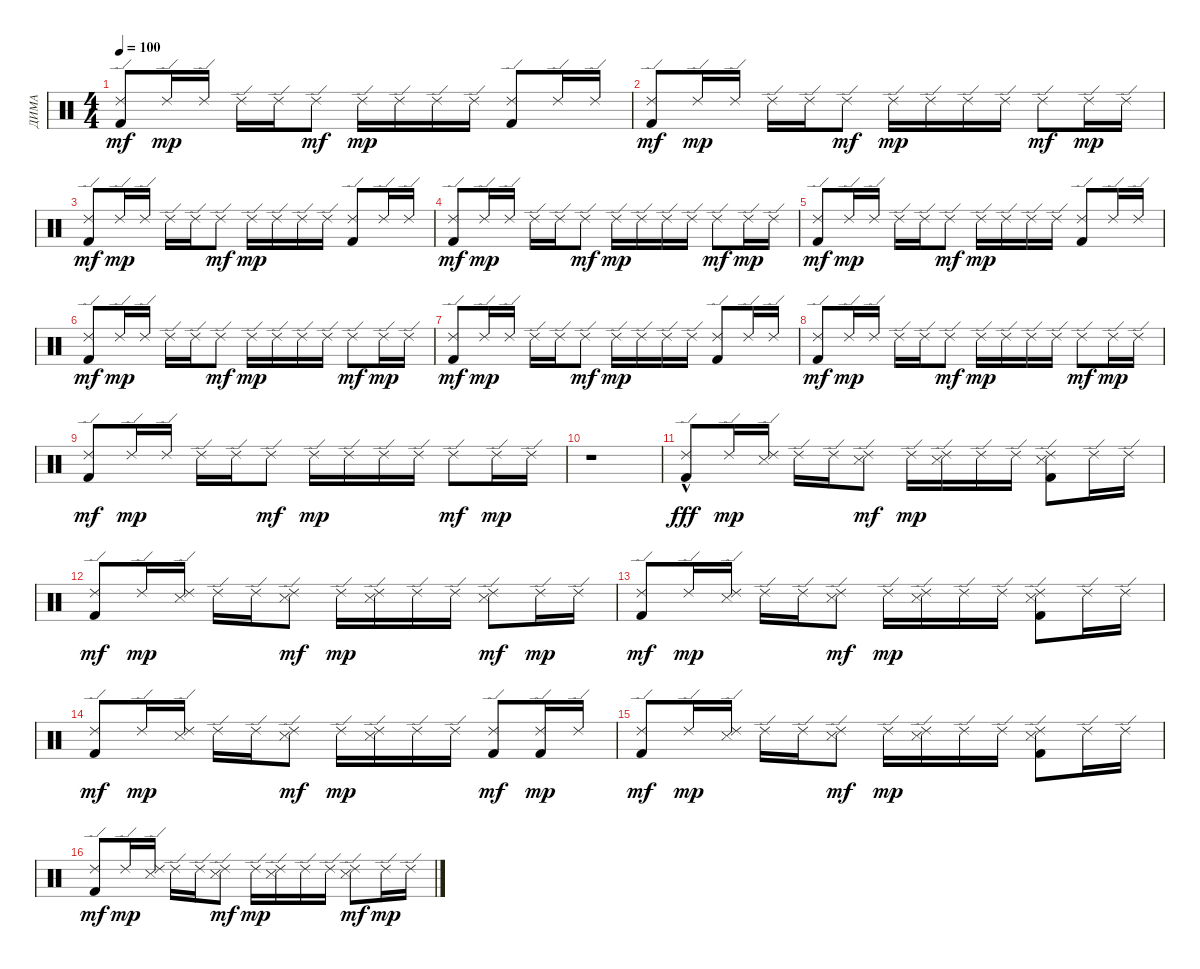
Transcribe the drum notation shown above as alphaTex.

\track ("ДИМА" "ДИМА") {instrument percussion}
\staff {score}
\articulation defaults
\ts (4 4)
\tempo 100
\clef neutral
\ks c
("Ride (edge) 2" "Kick (hit) 2").8{dy mf} "Ride (edge) 2".16{dy mp} "Ride (edge) 2".16 "Ride (edge) 2".16 "Ride (edge) 2".16 "Ride (edge) 2".8{dy mf} "Ride (edge) 2".16{dy mp} "Ride (edge) 2".16 "Ride (edge) 2".16 "Ride (edge) 2".16 ("Ride (edge) 2" "Kick (hit) 2").8 "Ride (edge) 2".16 "Ride (edge) 2".16 |
("Ride (edge) 2" "Kick (hit) 2").8{dy mf} "Ride (edge) 2".16{dy mp} "Ride (edge) 2".16 "Ride (edge) 2".16 "Ride (edge) 2".16 "Ride (edge) 2".8{dy mf} "Ride (edge) 2".16{dy mp} "Ride (edge) 2".16 "Ride (edge) 2".16 "Ride (edge) 2".16 "Ride (edge) 2".8{dy mf} "Ride (edge) 2".16{dy mp} "Ride (edge) 2".16 |
("Ride (edge) 2" "Kick (hit) 2").8{dy mf} "Ride (edge) 2".16{dy mp} "Ride (edge) 2".16 "Ride (edge) 2".16 "Ride (edge) 2".16 "Ride (edge) 2".8{dy mf} "Ride (edge) 2".16{dy mp} "Ride (edge) 2".16 "Ride (edge) 2".16 "Ride (edge) 2".16 ("Ride (edge) 2" "Kick (hit) 2").8 "Ride (edge) 2".16 "Ride (edge) 2".16 |
("Ride (edge) 2" "Kick (hit) 2").8{dy mf} "Ride (edge) 2".16{dy mp} "Ride (edge) 2".16 "Ride (edge) 2".16 "Ride (edge) 2".16 "Ride (edge) 2".8{dy mf} "Ride (edge) 2".16{dy mp} "Ride (edge) 2".16 "Ride (edge) 2".16 "Ride (edge) 2".16 "Ride (edge) 2".8{dy mf} "Ride (edge) 2".16{dy mp} "Ride (edge) 2".16 |
("Ride (edge) 2" "Kick (hit) 2").8{dy mf} "Ride (edge) 2".16{dy mp} "Ride (edge) 2".16 "Ride (edge) 2".16 "Ride (edge) 2".16 "Ride (edge) 2".8{dy mf} "Ride (edge) 2".16{dy mp} "Ride (edge) 2".16 "Ride (edge) 2".16 "Ride (edge) 2".16 ("Ride (edge) 2" "Kick (hit) 2").8 "Ride (edge) 2".16 "Ride (edge) 2".16 |
("Ride (edge) 2" "Kick (hit) 2").8{dy mf} "Ride (edge) 2".16{dy mp} "Ride (edge) 2".16 "Ride (edge) 2".16 "Ride (edge) 2".16 "Ride (edge) 2".8{dy mf} "Ride (edge) 2".16{dy mp} "Ride (edge) 2".16 "Ride (edge) 2".16 "Ride (edge) 2".16 "Ride (edge) 2".8{dy mf} "Ride (edge) 2".16{dy mp} "Ride (edge) 2".16 |
("Ride (edge) 2" "Kick (hit) 2").8{dy mf} "Ride (edge) 2".16{dy mp} "Ride (edge) 2".16 "Ride (edge) 2".16 "Ride (edge) 2".16 "Ride (edge) 2".8{dy mf} "Ride (edge) 2".16{dy mp} "Ride (edge) 2".16 "Ride (edge) 2".16 "Ride (edge) 2".16 ("Ride (edge) 2" "Kick (hit) 2").8 "Ride (edge) 2".16 "Ride (edge) 2".16 |
("Ride (edge) 2" "Kick (hit) 2").8{dy mf} "Ride (edge) 2".16{dy mp} "Ride (edge) 2".16 "Ride (edge) 2".16 "Ride (edge) 2".16 "Ride (edge) 2".8{dy mf} "Ride (edge) 2".16{dy mp} "Ride (edge) 2".16 "Ride (edge) 2".16 "Ride (edge) 2".16 "Ride (edge) 2".8{dy mf} "Ride (edge) 2".16{dy mp} "Ride (edge) 2".16 |
("Ride (edge) 2" "Kick (hit) 2").8{dy mf} "Ride (edge) 2".16{dy mp} "Ride (edge) 2".16 "Ride (edge) 2".16 "Ride (edge) 2".16 "Ride (edge) 2".8{dy mf} "Ride (edge) 2".16{dy mp} "Ride (edge) 2".16 "Ride (edge) 2".16 "Ride (edge) 2".16 "Ride (edge) 2".8{dy mf} "Ride (edge) 2".16{dy mp} "Ride (edge) 2".16 |
r.1 |
("Ride (edge) 2" "Kick (hit) 2"{hac}).8{dy fff} "Ride (edge) 2".16{dy mp} ("Ride (edge) 2" "Snare (side stick) 3").16 "Ride (edge) 2".16 "Ride (edge) 2".16 ("Ride (edge) 2" "Snare (side stick) 3").8{dy mf} "Ride (edge) 2".16{dy mp} ("Ride (edge) 2" "Snare (side stick) 3").16 "Ride (edge) 2".16 "Ride (edge) 2".16 ("Ride (edge) 2" "Snare (side stick) 3" "Kick (hit) 2").8 "Ride (edge) 2".16 "Ride (edge) 2".16 |
("Ride (edge) 2" "Kick (hit) 2").8{dy mf} "Ride (edge) 2".16{dy mp} ("Ride (edge) 2" "Snare (side stick) 3").16 "Ride (edge) 2".16 "Ride (edge) 2".16 ("Ride (edge) 2" "Snare (side stick) 3").8{dy mf} "Ride (edge) 2".16{dy mp} ("Ride (edge) 2" "Snare (side stick) 3").16 "Ride (edge) 2".16 "Ride (edge) 2".16 ("Ride (edge) 2" "Snare (side stick) 3").8{dy mf} "Ride (edge) 2".16{dy mp} "Ride (edge) 2".16 |
("Ride (edge) 2" "Kick (hit) 2").8{dy mf} "Ride (edge) 2".16{dy mp} ("Ride (edge) 2" "Snare (side stick) 3").16 "Ride (edge) 2".16 "Ride (edge) 2".16 ("Ride (edge) 2" "Snare (side stick) 3").8{dy mf} "Ride (edge) 2".16{dy mp} ("Ride (edge) 2" "Snare (side stick) 3").16 "Ride (edge) 2".16 "Ride (edge) 2".16 ("Ride (edge) 2" "Snare (side stick) 3" "Kick (hit) 2").8 "Ride (edge) 2".16 "Ride (edge) 2".16 |
("Ride (edge) 2" "Kick (hit) 2").8{dy mf} "Ride (edge) 2".16{dy mp} ("Ride (edge) 2" "Snare (side stick) 3").16 "Ride (edge) 2".16 "Ride (edge) 2".16 ("Ride (edge) 2" "Snare (side stick) 3").8{dy mf} "Ride (edge) 2".16{dy mp} ("Ride (edge) 2" "Snare (side stick) 3").16 "Ride (edge) 2".16 "Ride (edge) 2".16 ("Ride (edge) 2" "Kick (hit) 2").8{dy mf} ("Ride (edge) 2" "Kick (hit) 2").16{dy mp} "Ride (edge) 2".16 |
("Ride (edge) 2" "Kick (hit) 2").8{dy mf} "Ride (edge) 2".16{dy mp} ("Ride (edge) 2" "Snare (side stick) 3").16 "Ride (edge) 2".16 "Ride (edge) 2".16 ("Ride (edge) 2" "Snare (side stick) 3").8{dy mf} "Ride (edge) 2".16{dy mp} ("Ride (edge) 2" "Snare (side stick) 3").16 "Ride (edge) 2".16 "Ride (edge) 2".16 ("Ride (edge) 2" "Snare (side stick) 3" "Kick (hit) 2").8 "Ride (edge) 2".16 "Ride (edge) 2".16 |
("Ride (edge) 2" "Kick (hit) 2").8{dy mf} "Ride (edge) 2".16{dy mp} ("Ride (edge) 2" "Snare (side stick) 3").16 "Ride (edge) 2".16 "Ride (edge) 2".16 ("Ride (edge) 2" "Snare (side stick) 3").8{dy mf} "Ride (edge) 2".16{dy mp} ("Ride (edge) 2" "Snare (side stick) 3").16 "Ride (edge) 2".16 "Ride (edge) 2".16 ("Ride (edge) 2" "Snare (side stick) 3").8{dy mf} "Ride (edge) 2".16{dy mp} "Ride (edge) 2".16
